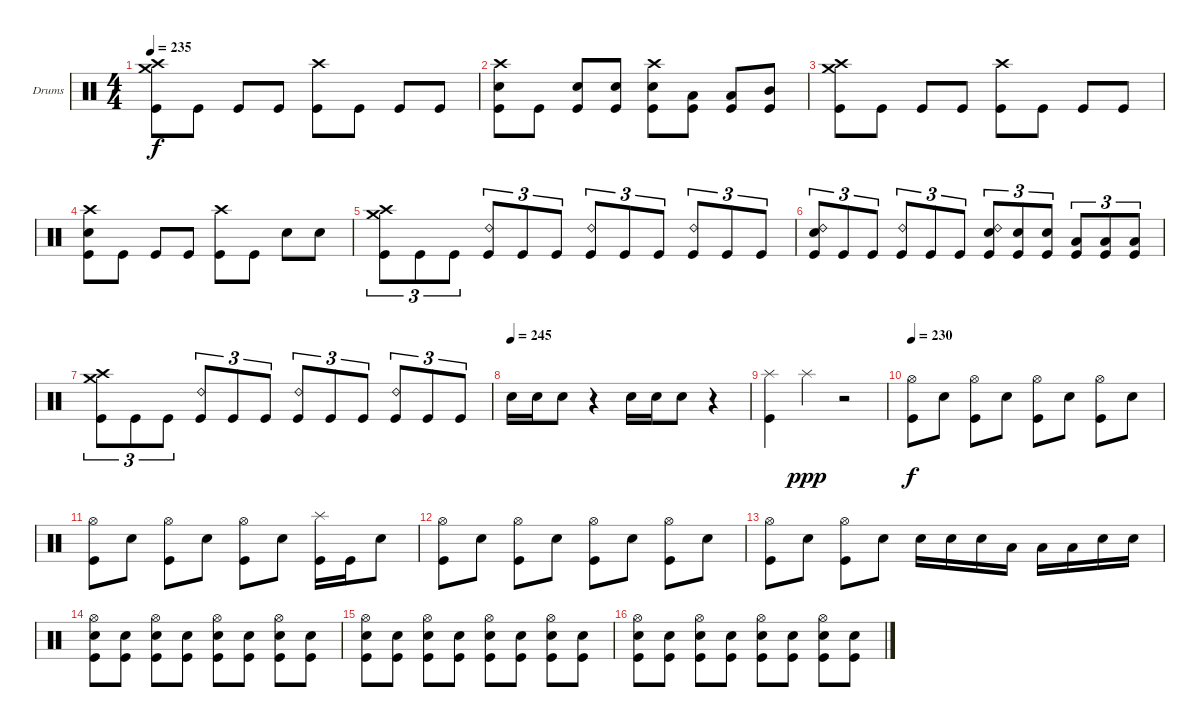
\bracketExtendMode groupsimilarinstruments
\firstSystemTrackNameOrientation horizontal
\otherSystemsTrackNameOrientation horizontal
\track ("Drumkit" "Drums") {instrument percussion}
\staff {score}
\articulation defaults
\ts (4 4)
\tempo 235
\clef neutral
\ks c
("Crash high (hit)" "Crash medium (hit)" "Kick (hit)").8{dy f} "Kick (hit)".8 "Kick (hit)".8 "Kick (hit)".8 ("Crash high (hit)" "Kick (hit)").8 "Kick (hit)".8 "Kick (hit)".8 "Kick (hit)".8 |
("Crash high (hit)" "Snare (hit) 2" "Kick (hit)").8 "Kick (hit)".8 ("Snare (hit) 2" "Kick (hit)").8 ("Snare (hit) 2" "Kick (hit)").8 ("Crash high (hit)" "Snare (hit) 2" "Kick (hit)").8 ("Low Tom (hit)" "Kick (hit)").8 ("Low Tom (hit)" "Kick (hit)").8 ("Mid Tom (hit)" "Kick (hit)").8 |
("Crash high (hit)" "Crash medium (hit)" "Kick (hit)").8 "Kick (hit)".8 "Kick (hit)".8 "Kick (hit)".8 ("Crash high (hit)" "Kick (hit)").8 "Kick (hit)".8 "Kick (hit)".8 "Kick (hit)".8 |
("Crash high (hit)" "Snare (hit) 2" "Kick (hit)").8 "Kick (hit)".8 "Kick (hit)".8 "Kick (hit)".8 ("Crash high (hit)" "Kick (hit)").8 "Kick (hit)".8 "Snare (hit) 2".8 "Snare (hit) 2".8 |
("Crash high (hit)" "Crash medium (hit)" "Kick (hit)").8{tu (3 2)} "Kick (hit)".8{tu (3 2)} "Kick (hit)".8{tu (3 2)} ("Ride (bell) 2" "Kick (hit)").8{tu (3 2)} "Kick (hit)".8{tu (3 2)} "Kick (hit)".8{tu (3 2)} ("Ride (bell) 2" "Kick (hit)").8{tu (3 2)} "Kick (hit)".8{tu (3 2)} "Kick (hit)".8{tu (3 2)} ("Ride (bell) 2" "Kick (hit)").8{tu (3 2)} "Kick (hit)".8{tu (3 2)} "Kick (hit)".8{tu (3 2)} |
("Ride (bell) 2" "Snare (hit) 2" "Kick (hit)").8{tu (3 2)} "Kick (hit)".8{tu (3 2)} "Kick (hit)".8{tu (3 2)} ("Ride (bell) 2" "Kick (hit)").8{tu (3 2)} "Kick (hit)".8{tu (3 2)} "Kick (hit)".8{tu (3 2)} ("Ride (bell) 2" "Snare (hit) 2" "Kick (hit)").8{tu (3 2)} ("Snare (hit) 2" "Kick (hit)").8{tu (3 2)} ("Snare (hit) 2" "Kick (hit)").8{tu (3 2)} ("Low Tom (hit)" "Kick (hit)").8{tu (3 2)} ("Low Tom (hit)" "Kick (hit)").8{tu (3 2)} ("Low Tom (hit)" "Kick (hit)").8{tu (3 2)} |
("Crash high (hit)" "Crash medium (hit)" "Kick (hit)").8{tu (3 2)} "Kick (hit)".8{tu (3 2)} "Kick (hit)".8{tu (3 2)} ("Ride (bell) 2" "Kick (hit)").8{tu (3 2)} "Kick (hit)".8{tu (3 2)} "Kick (hit)".8{tu (3 2)} ("Ride (bell) 2" "Kick (hit)").8{tu (3 2)} "Kick (hit)".8{tu (3 2)} "Kick (hit)".8{tu (3 2)} ("Ride (bell) 2" "Kick (hit)").8{tu (3 2)} "Kick (hit)".8{tu (3 2)} "Kick (hit)".8{tu (3 2)} |
\tempo (245)
"Snare (hit) 2".16 "Snare (hit) 2".16 "Snare (hit) 2".8 r.4 "Snare (hit) 2".16 "Snare (hit) 2".16 "Snare (hit) 2".8 r.4 |
("Splash (hit)" "Kick (hit)").4 "Splash (hit)".4{dy ppp} r.2 |
\tempo 230
("Hi-Hat (open)" "Kick (hit)").8{dy f} "Snare (hit) 2".8 ("Hi-Hat (open)" "Kick (hit)").8 "Snare (hit) 2".8 ("Hi-Hat (open)" "Kick (hit)").8 "Snare (hit) 2".8 ("Hi-Hat (open)" "Kick (hit)").8 "Snare (hit) 2".8 |
("Hi-Hat (open)" "Kick (hit)").8 "Snare (hit) 2".8 ("Hi-Hat (open)" "Kick (hit)").8 "Snare (hit) 2".8 ("Hi-Hat (open)" "Kick (hit)").8 "Snare (hit) 2".8 ("Splash (hit)" "Kick (hit)").16 "Kick (hit)".16 "Snare (hit) 2".8 |
("Hi-Hat (open)" "Kick (hit)").8 "Snare (hit) 2".8 ("Hi-Hat (open)" "Kick (hit)").8 "Snare (hit) 2".8 ("Hi-Hat (open)" "Kick (hit)").8 "Snare (hit) 2".8 ("Hi-Hat (open)" "Kick (hit)").8 "Snare (hit) 2".8 |
("Hi-Hat (open)" "Kick (hit)").8 "Snare (hit) 2".8 ("Hi-Hat (open)" "Kick (hit)").8 "Snare (hit) 2".8 "Snare (hit) 2".16 "Snare (hit) 2".16 "Snare (hit) 2".16 "Low Tom (hit)".16 "Low Tom (hit)".16 "Low Tom (hit)".16 "Snare (hit) 2".16 "Snare (hit) 2".16 |
("Hi-Hat (open)" "Snare (hit) 2" "Kick (hit)").8 ("Snare (hit) 2" "Kick (hit)").8 ("Hi-Hat (open)" "Snare (hit) 2" "Kick (hit)").8 ("Snare (hit) 2" "Kick (hit)").8 ("Hi-Hat (open)" "Snare (hit) 2" "Kick (hit)").8 ("Snare (hit) 2" "Kick (hit)").8 ("Hi-Hat (open)" "Snare (hit) 2" "Kick (hit)").8 ("Snare (hit) 2" "Kick (hit)").8 |
("Hi-Hat (open)" "Snare (hit) 2" "Kick (hit)").8 ("Snare (hit) 2" "Kick (hit)").8 ("Hi-Hat (open)" "Snare (hit) 2" "Kick (hit)").8 ("Snare (hit) 2" "Kick (hit)").8 ("Hi-Hat (open)" "Snare (hit) 2" "Kick (hit)").8 ("Snare (hit) 2" "Kick (hit)").8 ("Hi-Hat (open)" "Snare (hit) 2" "Kick (hit)").8 ("Snare (hit) 2" "Kick (hit)").8 |
("Hi-Hat (open)" "Snare (hit) 2" "Kick (hit)").8 ("Snare (hit) 2" "Kick (hit)").8 ("Hi-Hat (open)" "Snare (hit) 2" "Kick (hit)").8 ("Snare (hit) 2" "Kick (hit)").8 ("Hi-Hat (open)" "Snare (hit) 2" "Kick (hit)").8 ("Snare (hit) 2" "Kick (hit)").8 ("Hi-Hat (open)" "Snare (hit) 2" "Kick (hit)").8 ("Snare (hit) 2" "Kick (hit)").8
